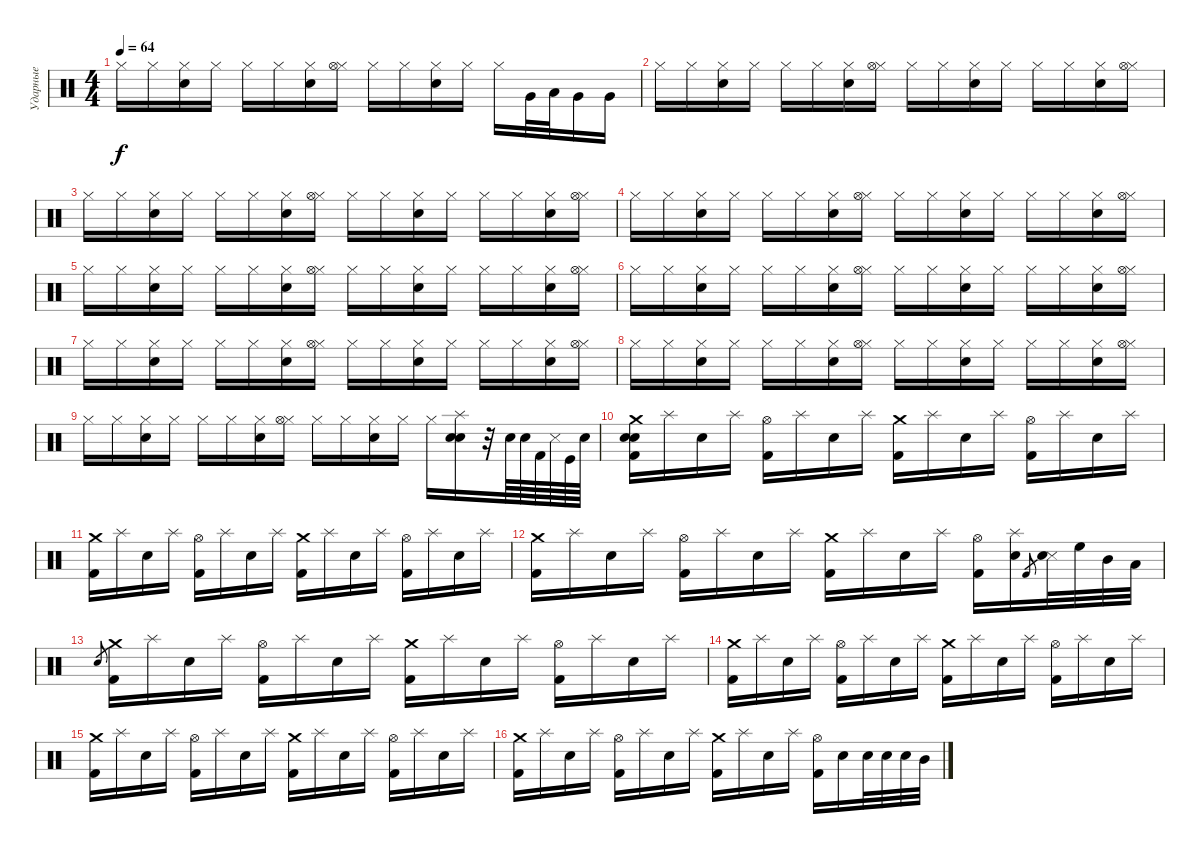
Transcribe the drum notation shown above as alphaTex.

\track ("Ударные" "Ударные") {instrument percussion}
\staff {score}
\articulation defaults
\ts (4 4)
\tempo 64
\clef neutral
\ks c "Hi-Hat (closed)".16{dy f} "Hi-Hat (closed)".16
("Hi-Hat (closed)" "Electric Snare (hit)").16 "Hi-Hat (closed)".16 "Hi-Hat (closed)".16 "Hi-Hat (closed)".16 ("Hi-Hat (closed)" "Electric Snare (hit)").16 ("Hi-Hat (closed)" "Hi-Hat (open)").16 "Hi-Hat (closed)".16 "Hi-Hat (closed)".16 ("Hi-Hat (closed)" "Electric Snare (hit)").16 "Hi-Hat (closed)".16 "Hi-Hat (closed)".16 "Very Low Tom (hit)".32 "Low Tom (hit)".32 "Very Low Tom (hit)".16 "Very Low Tom (hit)".16 |
"Hi-Hat (closed)".16 "Hi-Hat (closed)".16 ("Hi-Hat (closed)" "Electric Snare (hit)").16 "Hi-Hat (closed)".16 "Hi-Hat (closed)".16 "Hi-Hat (closed)".16 ("Hi-Hat (closed)" "Electric Snare (hit)").16 ("Hi-Hat (closed)" "Hi-Hat (open)").16 "Hi-Hat (closed)".16 "Hi-Hat (closed)".16 ("Hi-Hat (closed)" "Electric Snare (hit)").16 "Hi-Hat (closed)".16 "Hi-Hat (closed)".16 "Hi-Hat (closed)".16 ("Hi-Hat (closed)" "Electric Snare (hit)").16 ("Hi-Hat (closed)" "Hi-Hat (open)").16 |
"Hi-Hat (closed)".16 "Hi-Hat (closed)".16 ("Hi-Hat (closed)" "Electric Snare (hit)").16 "Hi-Hat (closed)".16 "Hi-Hat (closed)".16 "Hi-Hat (closed)".16 ("Hi-Hat (closed)" "Electric Snare (hit)").16 ("Hi-Hat (closed)" "Hi-Hat (open)").16 "Hi-Hat (closed)".16 "Hi-Hat (closed)".16 ("Hi-Hat (closed)" "Electric Snare (hit)").16 "Hi-Hat (closed)".16 "Hi-Hat (closed)".16 "Hi-Hat (closed)".16 ("Hi-Hat (closed)" "Electric Snare (hit)").16 ("Hi-Hat (closed)" "Hi-Hat (open)").16 |
"Hi-Hat (closed)".16 "Hi-Hat (closed)".16 ("Hi-Hat (closed)" "Electric Snare (hit)").16 "Hi-Hat (closed)".16 "Hi-Hat (closed)".16 "Hi-Hat (closed)".16 ("Hi-Hat (closed)" "Electric Snare (hit)").16 ("Hi-Hat (closed)" "Hi-Hat (open)").16 "Hi-Hat (closed)".16 "Hi-Hat (closed)".16 ("Hi-Hat (closed)" "Electric Snare (hit)").16 "Hi-Hat (closed)".16 "Hi-Hat (closed)".16 "Hi-Hat (closed)".16 ("Hi-Hat (closed)" "Electric Snare (hit)").16 ("Hi-Hat (closed)" "Hi-Hat (open)").16 |
"Hi-Hat (closed)".16 "Hi-Hat (closed)".16 ("Hi-Hat (closed)" "Electric Snare (hit)").16 "Hi-Hat (closed)".16 "Hi-Hat (closed)".16 "Hi-Hat (closed)".16 ("Hi-Hat (closed)" "Electric Snare (hit)").16 ("Hi-Hat (closed)" "Hi-Hat (open)").16 "Hi-Hat (closed)".16 "Hi-Hat (closed)".16 ("Hi-Hat (closed)" "Electric Snare (hit)").16 "Hi-Hat (closed)".16 "Hi-Hat (closed)".16 "Hi-Hat (closed)".16 ("Hi-Hat (closed)" "Electric Snare (hit)").16 ("Hi-Hat (closed)" "Hi-Hat (open)").16 |
"Hi-Hat (closed)".16 "Hi-Hat (closed)".16 ("Hi-Hat (closed)" "Electric Snare (hit)").16 "Hi-Hat (closed)".16 "Hi-Hat (closed)".16 "Hi-Hat (closed)".16 ("Hi-Hat (closed)" "Electric Snare (hit)").16 ("Hi-Hat (closed)" "Hi-Hat (open)").16 "Hi-Hat (closed)".16 "Hi-Hat (closed)".16 ("Hi-Hat (closed)" "Electric Snare (hit)").16 "Hi-Hat (closed)".16 "Hi-Hat (closed)".16 "Hi-Hat (closed)".16 ("Hi-Hat (closed)" "Electric Snare (hit)").16 ("Hi-Hat (closed)" "Hi-Hat (open)").16 |
"Hi-Hat (closed)".16 "Hi-Hat (closed)".16 ("Hi-Hat (closed)" "Electric Snare (hit)").16 "Hi-Hat (closed)".16 "Hi-Hat (closed)".16 "Hi-Hat (closed)".16 ("Hi-Hat (closed)" "Electric Snare (hit)").16 ("Hi-Hat (closed)" "Hi-Hat (open)").16 "Hi-Hat (closed)".16 "Hi-Hat (closed)".16 ("Hi-Hat (closed)" "Electric Snare (hit)").16 "Hi-Hat (closed)".16 "Hi-Hat (closed)".16 "Hi-Hat (closed)".16 ("Hi-Hat (closed)" "Electric Snare (hit)").16 ("Hi-Hat (closed)" "Hi-Hat (open)").16 |
"Hi-Hat (closed)".16 "Hi-Hat (closed)".16 ("Hi-Hat (closed)" "Electric Snare (hit)").16 "Hi-Hat (closed)".16 "Hi-Hat (closed)".16 "Hi-Hat (closed)".16 ("Hi-Hat (closed)" "Electric Snare (hit)").16 ("Hi-Hat (closed)" "Hi-Hat (open)").16 "Hi-Hat (closed)".16 "Hi-Hat (closed)".16 ("Hi-Hat (closed)" "Electric Snare (hit)").16 "Hi-Hat (closed)".16 "Hi-Hat (closed)".16 "Hi-Hat (closed)".16 ("Hi-Hat (closed)" "Electric Snare (hit)").16 ("Hi-Hat (closed)" "Hi-Hat (open)").16 |
"Hi-Hat (closed)".16 "Hi-Hat (closed)".16 ("Hi-Hat (closed)" "Electric Snare (hit)").16 "Hi-Hat (closed)".16 "Hi-Hat (closed)".16 "Hi-Hat (closed)".16 ("Hi-Hat (closed)" "Electric Snare (hit)").16 ("Hi-Hat (closed)" "Hi-Hat (open)").16 "Hi-Hat (closed)".16 "Hi-Hat (closed)".16 ("Hi-Hat (closed)" "Electric Snare (hit)").16 "Hi-Hat (closed)".16 "Hi-Hat (closed)".16 ("Splash (hit)" "Electric Snare (hit)" "Snare (hit) 2").16 r.32 "Electric Snare (hit)".64 "Snare (hit) 2".64 "Kick (hit) 2".64 "Snare (side stick) 3".64 "Kick (hit)".64 "Snare (hit) 2".64 |
("Crash medium (hit)" "Kick (hit) 2" "Snare (hit) 2" "Electric Snare (hit)").16 "Splash (hit)".16 "Snare (hit) 2".16 "Splash (hit)".16 ("Hi-Hat (open)" "Kick (hit) 2").16 "Splash (hit)".16 "Snare (hit) 2".16 "Splash (hit)".16 ("Crash medium (hit)" "Kick (hit) 2").16 "Splash (hit)".16 "Snare (hit) 2".16 "Splash (hit)".16 ("Hi-Hat (open)" "Kick (hit) 2").16 "Splash (hit)".16 "Snare (hit) 2".16 "Splash (hit)".16 |
("Crash medium (hit)" "Kick (hit) 2").16 "Splash (hit)".16 "Snare (hit) 2".16 "Splash (hit)".16 ("Hi-Hat (open)" "Kick (hit) 2").16 "Splash (hit)".16 "Snare (hit) 2".16 "Splash (hit)".16 ("Crash medium (hit)" "Kick (hit) 2").16 "Splash (hit)".16 "Snare (hit) 2".16 "Splash (hit)".16 ("Hi-Hat (open)" "Kick (hit) 2").16 "Splash (hit)".16 "Snare (hit) 2".16 "Splash (hit)".16 |
("Crash medium (hit)" "Kick (hit) 2").16 "Splash (hit)".16 "Snare (hit) 2".16 "Splash (hit)".16 ("Hi-Hat (open)" "Kick (hit) 2").16 "Splash (hit)".16 "Snare (hit) 2".16 "Splash (hit)".16 ("Crash medium (hit)" "Kick (hit) 2").16 "Splash (hit)".16 "Snare (hit) 2".16 "Splash (hit)".16 ("Hi-Hat (open)" "Kick (hit) 2").16 ("Splash (hit)" "Snare (hit) 2").16 "Kick (hit) 2".8{gr} ("Snare (side stick) 3" "Snare (hit) 2").32 "High Floor Tom (hit)".32 "Mid Tom (hit)".32 "Low Tom (hit)".32 |
"Snare (hit) 2".8{gr} ("Crash medium (hit)" "Kick (hit) 2").16 "Splash (hit)".16 "Snare (hit) 2".16 "Splash (hit)".16 ("Hi-Hat (open)" "Kick (hit) 2").16 "Splash (hit)".16 "Snare (hit) 2".16 "Splash (hit)".16 ("Crash medium (hit)" "Kick (hit) 2").16 "Splash (hit)".16 "Snare (hit) 2".16 "Splash (hit)".16 ("Hi-Hat (open)" "Kick (hit) 2").16 "Splash (hit)".16 "Snare (hit) 2".16 "Splash (hit)".16 |
("Crash medium (hit)" "Kick (hit) 2").16 "Splash (hit)".16 "Snare (hit) 2".16 "Splash (hit)".16 ("Hi-Hat (open)" "Kick (hit) 2").16 "Splash (hit)".16 "Snare (hit) 2".16 "Splash (hit)".16 ("Crash medium (hit)" "Kick (hit) 2").16 "Splash (hit)".16 "Snare (hit) 2".16 "Splash (hit)".16 ("Hi-Hat (open)" "Kick (hit) 2").16 "Splash (hit)".16 "Snare (hit) 2".16 "Splash (hit)".16 |
("Crash medium (hit)" "Kick (hit) 2").16 "Splash (hit)".16 "Snare (hit) 2".16 "Splash (hit)".16 ("Hi-Hat (open)" "Kick (hit) 2").16 "Splash (hit)".16 "Snare (hit) 2".16 "Splash (hit)".16 ("Crash medium (hit)" "Kick (hit) 2").16 "Splash (hit)".16 "Snare (hit) 2".16 "Splash (hit)".16 ("Hi-Hat (open)" "Kick (hit) 2").16 "Splash (hit)".16 "Snare (hit) 2".16 "Splash (hit)".16 |
("Crash medium (hit)" "Kick (hit) 2").16 "Splash (hit)".16 "Snare (hit) 2".16 "Splash (hit)".16 ("Hi-Hat (open)" "Kick (hit) 2").16 "Splash (hit)".16 "Snare (hit) 2".16 "Splash (hit)".16 ("Crash medium (hit)" "Kick (hit) 2").16 "Splash (hit)".16 "Snare (hit) 2".16 "Splash (hit)".16 ("Hi-Hat (open)" "Kick (hit) 2").16 "Electric Snare (hit)".16 "Snare (hit) 2".32 "Snare (hit) 2".32 "Electric Snare (hit)".32 "Mid Tom (hit)".32
